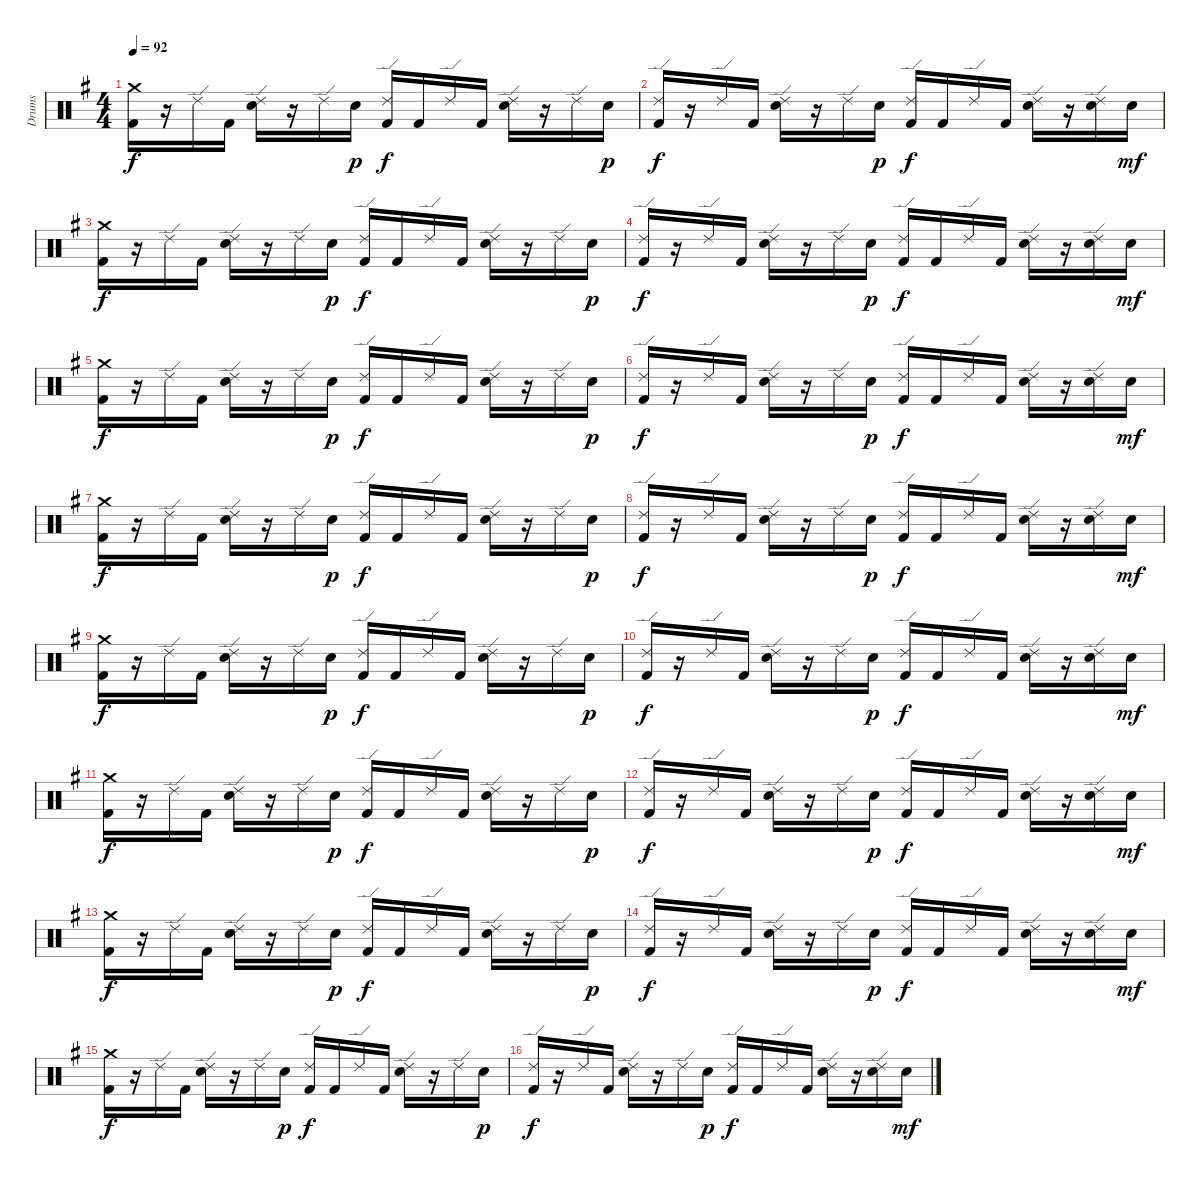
\track ("Drums" "Drums") {instrument percussion}
\staff {score}
\articulation defaults
\ts (4 4)
\tempo 92
\clef neutral
\ks g
("Crash medium (hit)" "Kick (hit) 2").16{dy f} r.16 "Ride (edge) 2".16 "Kick (hit) 2".16 ("Ride (edge) 2" "Snare (hit) 2").16 r.16 "Ride (edge) 2".16 "Snare (hit) 2".16{dy p} ("Ride (edge) 2" "Kick (hit) 2").16{dy f} "Kick (hit) 2".16 "Ride (edge) 2".16 "Kick (hit) 2".16 ("Ride (edge) 2" "Snare (hit) 2").16 r.16 "Ride (edge) 2".16 "Snare (hit) 2".16{dy p} |
("Ride (edge) 2" "Kick (hit) 2").16{dy f} r.16 "Ride (edge) 2".16 "Kick (hit) 2".16 ("Ride (edge) 2" "Snare (hit) 2").16 r.16 "Ride (edge) 2".16 "Snare (hit) 2".16{dy p} ("Ride (edge) 2" "Kick (hit) 2").16{dy f} "Kick (hit) 2".16 "Ride (edge) 2".16 "Kick (hit) 2".16 ("Ride (edge) 2" "Snare (hit) 2").16 r.16 ("Ride (edge) 2" "Snare (hit) 2").16 "Snare (hit) 2".16{dy mf} |
("Crash medium (hit)" "Kick (hit) 2").16{dy f} r.16 "Ride (edge) 2".16 "Kick (hit) 2".16 ("Ride (edge) 2" "Snare (hit) 2").16 r.16 "Ride (edge) 2".16 "Snare (hit) 2".16{dy p} ("Ride (edge) 2" "Kick (hit) 2").16{dy f} "Kick (hit) 2".16 "Ride (edge) 2".16 "Kick (hit) 2".16 ("Ride (edge) 2" "Snare (hit) 2").16 r.16 "Ride (edge) 2".16 "Snare (hit) 2".16{dy p} |
("Ride (edge) 2" "Kick (hit) 2").16{dy f} r.16 "Ride (edge) 2".16 "Kick (hit) 2".16 ("Ride (edge) 2" "Snare (hit) 2").16 r.16 "Ride (edge) 2".16 "Snare (hit) 2".16{dy p} ("Ride (edge) 2" "Kick (hit) 2").16{dy f} "Kick (hit) 2".16 "Ride (edge) 2".16 "Kick (hit) 2".16 ("Ride (edge) 2" "Snare (hit) 2").16 r.16 ("Ride (edge) 2" "Snare (hit) 2").16 "Snare (hit) 2".16{dy mf} |
("Crash medium (hit)" "Kick (hit) 2").16{dy f} r.16 "Ride (edge) 2".16 "Kick (hit) 2".16 ("Ride (edge) 2" "Snare (hit) 2").16 r.16 "Ride (edge) 2".16 "Snare (hit) 2".16{dy p} ("Ride (edge) 2" "Kick (hit) 2").16{dy f} "Kick (hit) 2".16 "Ride (edge) 2".16 "Kick (hit) 2".16 ("Ride (edge) 2" "Snare (hit) 2").16 r.16 "Ride (edge) 2".16 "Snare (hit) 2".16{dy p} |
("Ride (edge) 2" "Kick (hit) 2").16{dy f} r.16 "Ride (edge) 2".16 "Kick (hit) 2".16 ("Ride (edge) 2" "Snare (hit) 2").16 r.16 "Ride (edge) 2".16 "Snare (hit) 2".16{dy p} ("Ride (edge) 2" "Kick (hit) 2").16{dy f} "Kick (hit) 2".16 "Ride (edge) 2".16 "Kick (hit) 2".16 ("Ride (edge) 2" "Snare (hit) 2").16 r.16 ("Ride (edge) 2" "Snare (hit) 2").16 "Snare (hit) 2".16{dy mf} |
("Crash medium (hit)" "Kick (hit) 2").16{dy f} r.16 "Ride (edge) 2".16 "Kick (hit) 2".16 ("Ride (edge) 2" "Snare (hit) 2").16 r.16 "Ride (edge) 2".16 "Snare (hit) 2".16{dy p} ("Ride (edge) 2" "Kick (hit) 2").16{dy f} "Kick (hit) 2".16 "Ride (edge) 2".16 "Kick (hit) 2".16 ("Ride (edge) 2" "Snare (hit) 2").16 r.16 "Ride (edge) 2".16 "Snare (hit) 2".16{dy p} |
("Ride (edge) 2" "Kick (hit) 2").16{dy f} r.16 "Ride (edge) 2".16 "Kick (hit) 2".16 ("Ride (edge) 2" "Snare (hit) 2").16 r.16 "Ride (edge) 2".16 "Snare (hit) 2".16{dy p} ("Ride (edge) 2" "Kick (hit) 2").16{dy f} "Kick (hit) 2".16 "Ride (edge) 2".16 "Kick (hit) 2".16 ("Ride (edge) 2" "Snare (hit) 2").16 r.16 ("Ride (edge) 2" "Snare (hit) 2").16 "Snare (hit) 2".16{dy mf} |
("Crash medium (hit)" "Kick (hit) 2").16{dy f} r.16 "Ride (edge) 2".16 "Kick (hit) 2".16 ("Ride (edge) 2" "Snare (hit) 2").16 r.16 "Ride (edge) 2".16 "Snare (hit) 2".16{dy p} ("Ride (edge) 2" "Kick (hit) 2").16{dy f} "Kick (hit) 2".16 "Ride (edge) 2".16 "Kick (hit) 2".16 ("Ride (edge) 2" "Snare (hit) 2").16 r.16 "Ride (edge) 2".16 "Snare (hit) 2".16{dy p} |
("Ride (edge) 2" "Kick (hit) 2").16{dy f} r.16 "Ride (edge) 2".16 "Kick (hit) 2".16 ("Ride (edge) 2" "Snare (hit) 2").16 r.16 "Ride (edge) 2".16 "Snare (hit) 2".16{dy p} ("Ride (edge) 2" "Kick (hit) 2").16{dy f} "Kick (hit) 2".16 "Ride (edge) 2".16 "Kick (hit) 2".16 ("Ride (edge) 2" "Snare (hit) 2").16 r.16 ("Ride (edge) 2" "Snare (hit) 2").16 "Snare (hit) 2".16{dy mf} |
("Crash medium (hit)" "Kick (hit) 2").16{dy f} r.16 "Ride (edge) 2".16 "Kick (hit) 2".16 ("Ride (edge) 2" "Snare (hit) 2").16 r.16 "Ride (edge) 2".16 "Snare (hit) 2".16{dy p} ("Ride (edge) 2" "Kick (hit) 2").16{dy f} "Kick (hit) 2".16 "Ride (edge) 2".16 "Kick (hit) 2".16 ("Ride (edge) 2" "Snare (hit) 2").16 r.16 "Ride (edge) 2".16 "Snare (hit) 2".16{dy p} |
("Ride (edge) 2" "Kick (hit) 2").16{dy f} r.16 "Ride (edge) 2".16 "Kick (hit) 2".16 ("Ride (edge) 2" "Snare (hit) 2").16 r.16 "Ride (edge) 2".16 "Snare (hit) 2".16{dy p} ("Ride (edge) 2" "Kick (hit) 2").16{dy f} "Kick (hit) 2".16 "Ride (edge) 2".16 "Kick (hit) 2".16 ("Ride (edge) 2" "Snare (hit) 2").16 r.16 ("Ride (edge) 2" "Snare (hit) 2").16 "Snare (hit) 2".16{dy mf} |
("Crash medium (hit)" "Kick (hit) 2").16{dy f} r.16 "Ride (edge) 2".16 "Kick (hit) 2".16 ("Ride (edge) 2" "Snare (hit) 2").16 r.16 "Ride (edge) 2".16 "Snare (hit) 2".16{dy p} ("Ride (edge) 2" "Kick (hit) 2").16{dy f} "Kick (hit) 2".16 "Ride (edge) 2".16 "Kick (hit) 2".16 ("Ride (edge) 2" "Snare (hit) 2").16 r.16 "Ride (edge) 2".16 "Snare (hit) 2".16{dy p} |
("Ride (edge) 2" "Kick (hit) 2").16{dy f} r.16 "Ride (edge) 2".16 "Kick (hit) 2".16 ("Ride (edge) 2" "Snare (hit) 2").16 r.16 "Ride (edge) 2".16 "Snare (hit) 2".16{dy p} ("Ride (edge) 2" "Kick (hit) 2").16{dy f} "Kick (hit) 2".16 "Ride (edge) 2".16 "Kick (hit) 2".16 ("Ride (edge) 2" "Snare (hit) 2").16 r.16 ("Ride (edge) 2" "Snare (hit) 2").16 "Snare (hit) 2".16{dy mf} |
("Crash medium (hit)" "Kick (hit) 2").16{dy f} r.16 "Ride (edge) 2".16 "Kick (hit) 2".16 ("Ride (edge) 2" "Snare (hit) 2").16 r.16 "Ride (edge) 2".16 "Snare (hit) 2".16{dy p} ("Ride (edge) 2" "Kick (hit) 2").16{dy f} "Kick (hit) 2".16 "Ride (edge) 2".16 "Kick (hit) 2".16 ("Ride (edge) 2" "Snare (hit) 2").16 r.16 "Ride (edge) 2".16 "Snare (hit) 2".16{dy p} |
("Ride (edge) 2" "Kick (hit) 2").16{dy f} r.16 "Ride (edge) 2".16 "Kick (hit) 2".16 ("Ride (edge) 2" "Snare (hit) 2").16 r.16 "Ride (edge) 2".16 "Snare (hit) 2".16{dy p} ("Ride (edge) 2" "Kick (hit) 2").16{dy f} "Kick (hit) 2".16 "Ride (edge) 2".16 "Kick (hit) 2".16 ("Ride (edge) 2" "Snare (hit) 2").16 r.16 ("Ride (edge) 2" "Snare (hit) 2").16 "Snare (hit) 2".16{dy mf}
